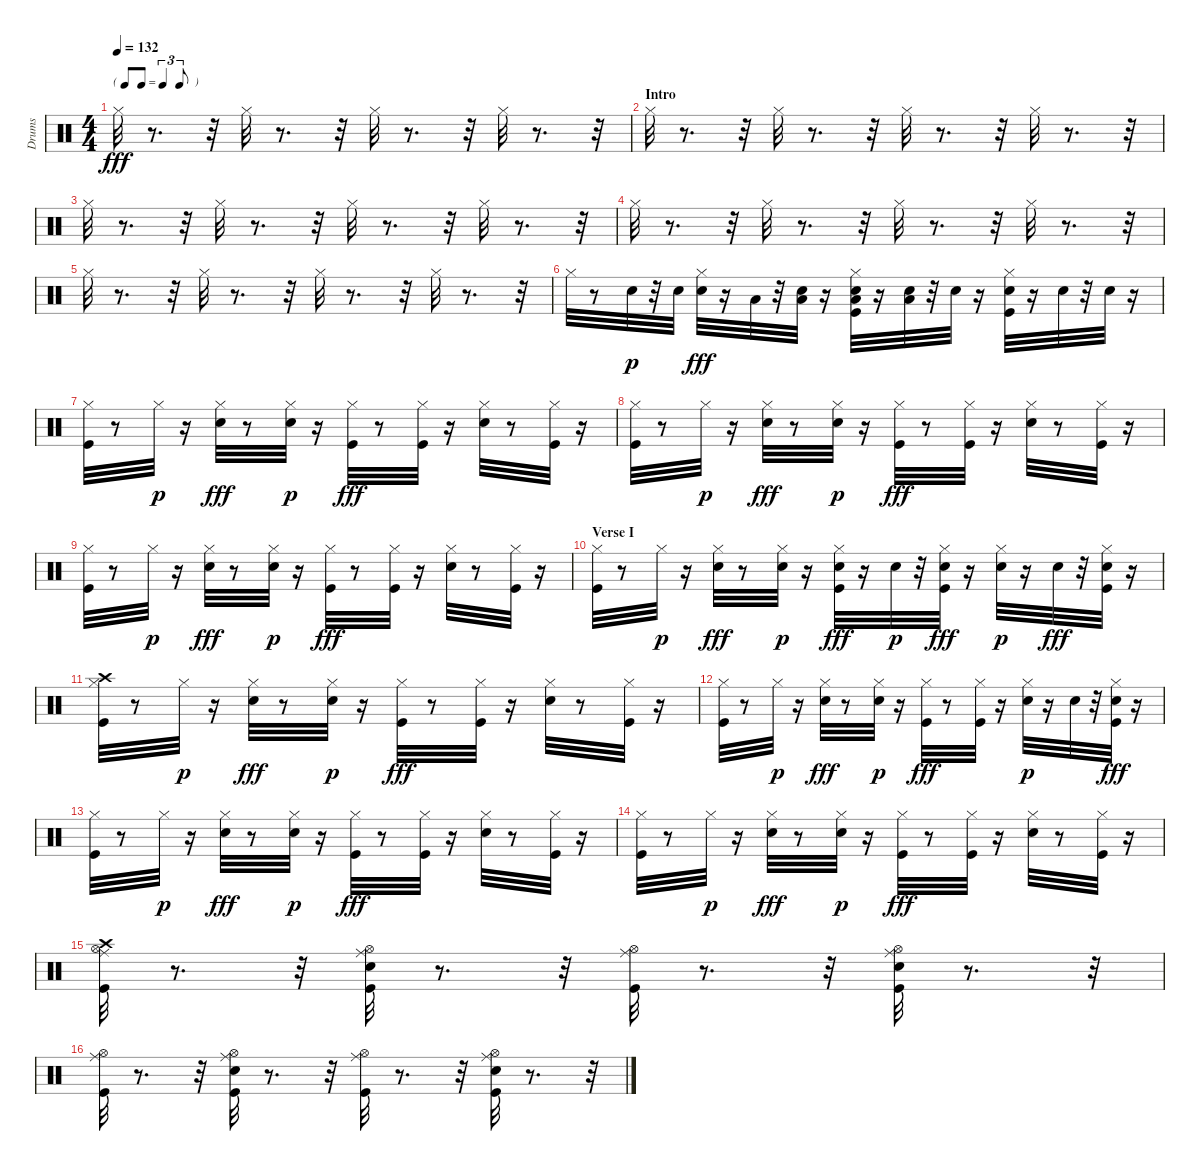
\track ("Drums" "Drums") {instrument percussion}
\staff {score}
\articulation defaults
\ts (4 4)
\tf triplet8th
\tempo 132
\clef neutral
\ks c "Hi-Hat (closed)".32{dy fff}
r.8{d} r.32 "Hi-Hat (closed)".32 r.8{d} r.32 "Hi-Hat (closed)".32 r.8{d} r.32 "Hi-Hat (closed)".32 r.8{d} r.32 |
\section ("" "Intro")
"Hi-Hat (closed)".32 r.8{d} r.32 "Hi-Hat (closed)".32 r.8{d} r.32 "Hi-Hat (closed)".32 r.8{d} r.32 "Hi-Hat (closed)".32 r.8{d} r.32 |
"Hi-Hat (closed)".32 r.8{d} r.32 "Hi-Hat (closed)".32 r.8{d} r.32 "Hi-Hat (closed)".32 r.8{d} r.32 "Hi-Hat (closed)".32 r.8{d} r.32 |
"Hi-Hat (closed)".32 r.8{d} r.32 "Hi-Hat (closed)".32 r.8{d} r.32 "Hi-Hat (closed)".32 r.8{d} r.32 "Hi-Hat (closed)".32 r.8{d} r.32 |
"Hi-Hat (closed)".32 r.8{d} r.32 "Hi-Hat (closed)".32 r.8{d} r.32 "Hi-Hat (closed)".32 r.8{d} r.32 "Hi-Hat (closed)".32 r.8{d} r.32 |
"Hi-Hat (closed)".32 r.8 "Snare (hit) 2".32{dy p} r.32 "Snare (hit) 2".32 ("Hi-Hat (closed)" "Snare (hit) 2").32{dy fff} r.16 "Low Tom (hit)".32 r.32 ("Snare (hit) 2" "Low Tom (hit)").32 r.16 ("Hi-Hat (closed)" "Snare (hit) 2" "Kick (hit)" "Low Floor Tom (hit)").32 r.16 ("Snare (hit) 2" "Low Floor Tom (hit)").32 r.32 "Snare (hit) 2".32 r.16 ("Hi-Hat (closed)" "Snare (hit) 2" "Kick (hit)").32 r.16 "Snare (hit) 2".32 r.32 "Snare (hit) 2".32 r.16 |
("Hi-Hat (closed)" "Kick (hit)").32 r.8 "Hi-Hat (closed)".32{dy p} r.16 ("Hi-Hat (closed)" "Snare (hit) 2").32{dy fff} r.8 ("Hi-Hat (closed)" "Snare (hit) 2").32{dy p} r.16 ("Hi-Hat (closed)" "Kick (hit)").32{dy fff} r.8 ("Hi-Hat (closed)" "Kick (hit)").32 r.16 ("Hi-Hat (closed)" "Snare (hit) 2").32 r.8 ("Hi-Hat (closed)" "Kick (hit)").32 r.16 |
("Hi-Hat (closed)" "Kick (hit)").32 r.8 "Hi-Hat (closed)".32{dy p} r.16 ("Hi-Hat (closed)" "Snare (hit) 2").32{dy fff} r.8 ("Hi-Hat (closed)" "Snare (hit) 2").32{dy p} r.16 ("Hi-Hat (closed)" "Kick (hit)").32{dy fff} r.8 ("Hi-Hat (closed)" "Kick (hit)").32 r.16 ("Hi-Hat (closed)" "Snare (hit) 2").32 r.8 ("Hi-Hat (closed)" "Kick (hit)").32 r.16 |
("Hi-Hat (closed)" "Kick (hit)").32 r.8 "Hi-Hat (closed)".32{dy p} r.16 ("Hi-Hat (closed)" "Snare (hit) 2").32{dy fff} r.8 ("Hi-Hat (closed)" "Snare (hit) 2").32{dy p} r.16 ("Hi-Hat (closed)" "Kick (hit)").32{dy fff} r.8 ("Hi-Hat (closed)" "Kick (hit)").32 r.16 ("Hi-Hat (closed)" "Snare (hit) 2").32 r.8 ("Hi-Hat (closed)" "Kick (hit)").32 r.16 |
\section ("" "Verse I")
("Hi-Hat (closed)" "Kick (hit)").32 r.8 "Hi-Hat (closed)".32{dy p} r.16 ("Hi-Hat (closed)" "Snare (hit) 2").32{dy fff} r.8 ("Hi-Hat (closed)" "Snare (hit) 2").32{dy p} r.16 ("Hi-Hat (closed)" "Snare (hit) 2" "Kick (hit)").32{dy fff} r.16 "Snare (hit) 2".32{dy p} r.32 ("Hi-Hat (closed)" "Snare (hit) 2" "Kick (hit)").32{dy fff} r.16 ("Hi-Hat (closed)" "Snare (hit) 2").32{dy p} r.16 "Snare (hit) 2".32{dy fff} r.32 ("Hi-Hat (closed)" "Snare (hit) 2" "Kick (hit)").32 r.16 |
("Hi-Hat (closed)" "Kick (hit)" "Crash high (hit)").32 r.8 "Hi-Hat (closed)".32{dy p} r.16 ("Hi-Hat (closed)" "Snare (hit) 2").32{dy fff} r.8 ("Hi-Hat (closed)" "Snare (hit) 2").32{dy p} r.16 ("Hi-Hat (closed)" "Kick (hit)").32{dy fff} r.8 ("Hi-Hat (closed)" "Kick (hit)").32 r.16 ("Hi-Hat (closed)" "Snare (hit) 2").32 r.8 ("Hi-Hat (closed)" "Kick (hit)").32 r.16 |
("Hi-Hat (closed)" "Kick (hit)").32 r.8 "Hi-Hat (closed)".32{dy p} r.16 ("Hi-Hat (closed)" "Snare (hit) 2").32{dy fff} r.8 ("Hi-Hat (closed)" "Snare (hit) 2").32{dy p} r.16 ("Hi-Hat (closed)" "Kick (hit)").32{dy fff} r.8 ("Hi-Hat (closed)" "Kick (hit)").32 r.16 ("Hi-Hat (closed)" "Snare (hit) 2").32{dy p} r.16 "Snare (hit) 2".32 r.32 ("Hi-Hat (closed)" "Snare (hit) 2" "Kick (hit)").32{dy fff} r.16 |
("Hi-Hat (closed)" "Kick (hit)").32 r.8 "Hi-Hat (closed)".32{dy p} r.16 ("Hi-Hat (closed)" "Snare (hit) 2").32{dy fff} r.8 ("Hi-Hat (closed)" "Snare (hit) 2").32{dy p} r.16 ("Hi-Hat (closed)" "Kick (hit)").32{dy fff} r.8 ("Hi-Hat (closed)" "Kick (hit)").32 r.16 ("Hi-Hat (closed)" "Snare (hit) 2").32 r.8 ("Hi-Hat (closed)" "Kick (hit)").32 r.16 |
("Hi-Hat (closed)" "Kick (hit)").32 r.8 "Hi-Hat (closed)".32{dy p} r.16 ("Hi-Hat (closed)" "Snare (hit) 2").32{dy fff} r.8 ("Hi-Hat (closed)" "Snare (hit) 2").32{dy p} r.16 ("Hi-Hat (closed)" "Kick (hit)").32{dy fff} r.8 ("Hi-Hat (closed)" "Kick (hit)").32 r.16 ("Hi-Hat (closed)" "Snare (hit) 2").32 r.8 ("Hi-Hat (closed)" "Kick (hit)").32 r.16 |
("Kick (hit)" "Crash high (hit)" "Ride (middle)" "Hi-Hat (open)").32 r.8{d} r.32 ("Snare (hit) 2" "Kick (hit)" "Ride (middle)" "Hi-Hat (open)").32 r.8{d} r.32 ("Kick (hit)" "Ride (middle)" "Hi-Hat (open)").32 r.8{d} r.32 ("Snare (hit) 2" "Kick (hit)" "Ride (middle)" "Hi-Hat (open)").32 r.8{d} r.32 |
("Kick (hit)" "Ride (middle)" "Hi-Hat (open)").32 r.8{d} r.32 ("Snare (hit) 2" "Kick (hit)" "Ride (middle)" "Hi-Hat (open)").32 r.8{d} r.32 ("Kick (hit)" "Ride (middle)" "Hi-Hat (open)").32 r.8{d} r.32 ("Snare (hit) 2" "Kick (hit)" "Ride (middle)" "Hi-Hat (open)").32 r.8{d} r.32
